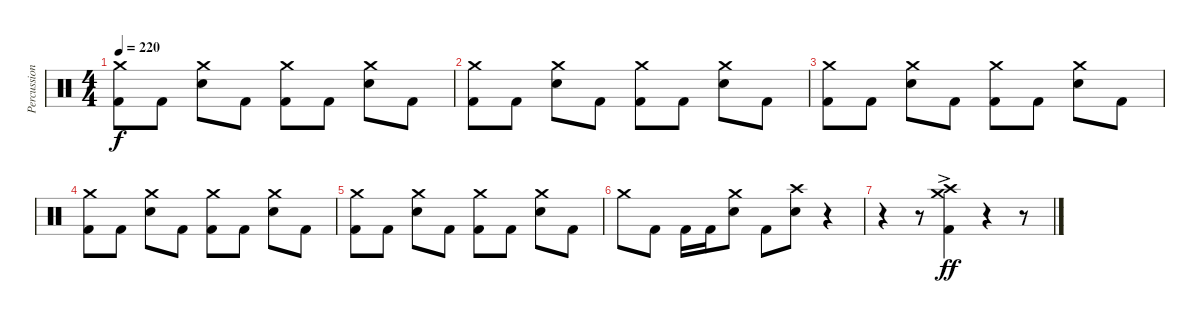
\track ("Percussion" "Percussion") {instrument percussion}
\staff {score}
\articulation defaults
\ts (4 4)
\tempo 220
\clef neutral
\ks c
("Crash medium (hit)" "Kick (hit) 2").8{dy f} "Kick (hit) 2".8 ("Crash medium (hit)" "Electric Snare (hit)").8 "Kick (hit) 2".8 ("Crash medium (hit)" "Kick (hit) 2").8 "Kick (hit) 2".8 ("Crash medium (hit)" "Electric Snare (hit)").8 "Kick (hit) 2".8 |
("Crash medium (hit)" "Kick (hit) 2").8 "Kick (hit) 2".8 ("Crash medium (hit)" "Electric Snare (hit)").8 "Kick (hit) 2".8 ("Crash medium (hit)" "Kick (hit) 2").8 "Kick (hit) 2".8 ("Crash medium (hit)" "Electric Snare (hit)").8 "Kick (hit) 2".8 |
("Crash medium (hit)" "Kick (hit) 2").8 "Kick (hit) 2".8 ("Crash medium (hit)" "Electric Snare (hit)").8 "Kick (hit) 2".8 ("Crash medium (hit)" "Kick (hit) 2").8 "Kick (hit) 2".8 ("Crash medium (hit)" "Electric Snare (hit)").8 "Kick (hit) 2".8 |
("Crash medium (hit)" "Kick (hit) 2").8 "Kick (hit) 2".8 ("Crash medium (hit)" "Electric Snare (hit)").8 "Kick (hit) 2".8 ("Crash medium (hit)" "Kick (hit) 2").8 "Kick (hit) 2".8 ("Crash medium (hit)" "Electric Snare (hit)").8 "Kick (hit) 2".8 |
("Crash medium (hit)" "Kick (hit) 2").8 "Kick (hit) 2".8 ("Crash medium (hit)" "Electric Snare (hit)").8 "Kick (hit) 2".8 ("Crash medium (hit)" "Kick (hit) 2").8 "Kick (hit) 2".8 ("Crash medium (hit)" "Electric Snare (hit)").8 "Kick (hit) 2".8 |
"Crash medium (hit)".8 "Kick (hit) 2".8 "Kick (hit) 2".16 "Kick (hit) 2".16 ("Crash medium (hit)" "Electric Snare (hit)").8 "Kick (hit) 2".8 ("Crash high (hit)" "Electric Snare (hit)").8 r.4{volume 0} |
r.4 r.8 ("Crash medium (hit)" "Crash high (hit)" "Kick (hit) 2"{ac}).4{dy ff volume 14} r.4{volume 0} r.8
